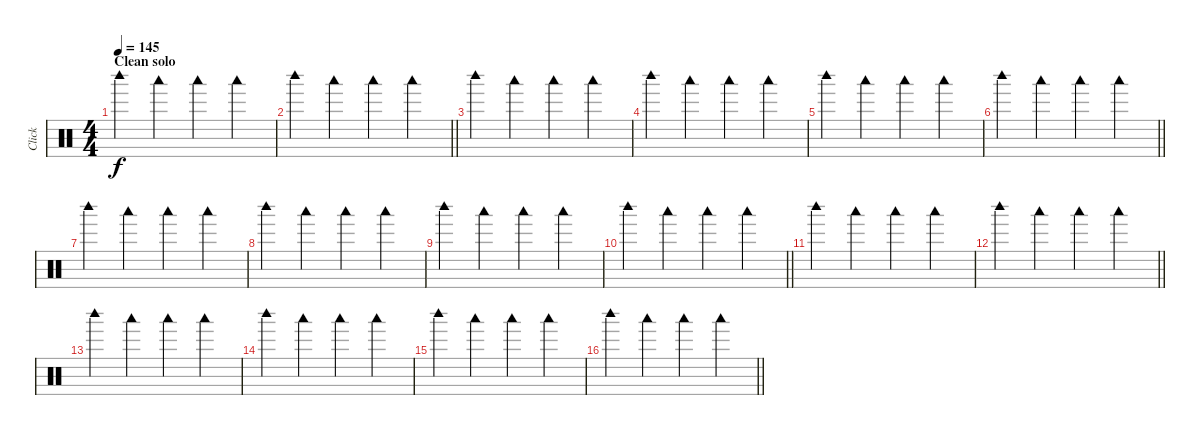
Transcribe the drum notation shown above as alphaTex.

\track ("Click" "Click") {mute instrument percussion}
\staff {score}
\articulation defaults
\ts (4 4)
\section ("" "Clean solo")
\tempo 145
\clef neutral
\ks c "Woodblock high (hit)".4{dy f} "Woodblock low (hit)".4 "Woodblock low (hit)".4 "Woodblock low (hit)".4
|
\barLineRight lightlight "Woodblock high (hit)".4 "Woodblock low (hit)".4 "Woodblock low (hit)".4 "Woodblock low (hit)".4
|
"Woodblock high (hit)".4 "Woodblock low (hit)".4 "Woodblock low (hit)".4 "Woodblock low (hit)".4 |
"Woodblock high (hit)".4 "Woodblock low (hit)".4 "Woodblock low (hit)".4 "Woodblock low (hit)".4 |
"Woodblock high (hit)".4 "Woodblock low (hit)".4 "Woodblock low (hit)".4 "Woodblock low (hit)".4 |
\barLineRight lightlight "Woodblock high (hit)".4 "Woodblock low (hit)".4 "Woodblock low (hit)".4 "Woodblock low (hit)".4
|
"Woodblock high (hit)".4 "Woodblock low (hit)".4 "Woodblock low (hit)".4 "Woodblock low (hit)".4 |
"Woodblock high (hit)".4 "Woodblock low (hit)".4 "Woodblock low (hit)".4 "Woodblock low (hit)".4 |
"Woodblock high (hit)".4 "Woodblock low (hit)".4 "Woodblock low (hit)".4 "Woodblock low (hit)".4 |
\barLineRight lightlight "Woodblock high (hit)".4 "Woodblock low (hit)".4 "Woodblock low (hit)".4 "Woodblock low (hit)".4
|
"Woodblock high (hit)".4 "Woodblock low (hit)".4 "Woodblock low (hit)".4 "Woodblock low (hit)".4 |
\barLineRight lightlight "Woodblock high (hit)".4 "Woodblock low (hit)".4 "Woodblock low (hit)".4 "Woodblock low (hit)".4
|
"Woodblock high (hit)".4 "Woodblock low (hit)".4 "Woodblock low (hit)".4 "Woodblock low (hit)".4 |
"Woodblock high (hit)".4 "Woodblock low (hit)".4 "Woodblock low (hit)".4 "Woodblock low (hit)".4 |
"Woodblock high (hit)".4 "Woodblock low (hit)".4 "Woodblock low (hit)".4 "Woodblock low (hit)".4 |
\barLineRight lightlight "Woodblock high (hit)".4 "Woodblock low (hit)".4 "Woodblock low (hit)".4 "Woodblock low (hit)".4
